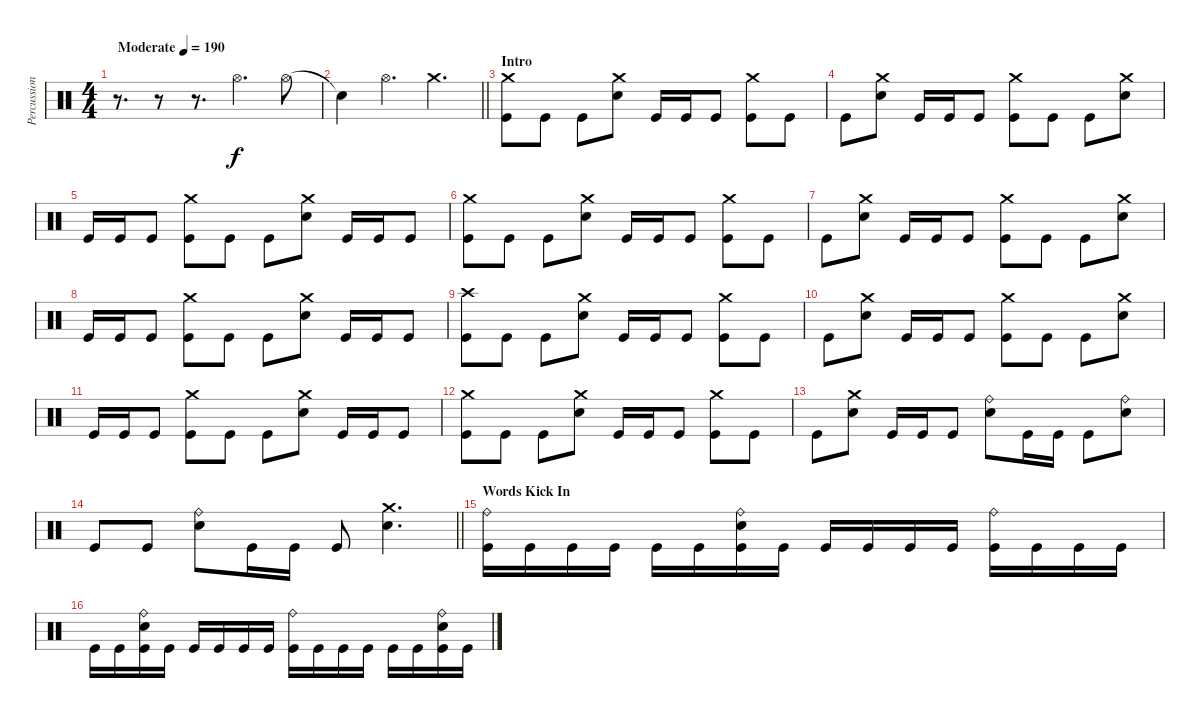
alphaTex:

\track ("Percussion" "Percussion") {instrument percussion}
\staff {score}
\articulation defaults
\ts (4 4)
\tempo (190 "Moderate")
\clef neutral
\ks c
r.8{d dy f} r.8 r.8{d} "Hi-Hat (open)".4{d} "Hi-Hat (open)".8 |
\barLineRight lightlight "Snare (hit)"{t}.4 "Hi-Hat (open)".4{d} "Crash medium (hit)".4{d}
|
\section ("" "Intro ")
("Crash medium (hit)" "Kick (hit)").8 "Kick (hit)".8 "Kick (hit)".8 ("Crash medium (hit)" "Snare (hit) 2").8 "Kick (hit)".16 "Kick (hit)".16 "Kick (hit)".8 ("Crash medium (hit)" "Kick (hit)").8 "Kick (hit)".8 |
"Kick (hit)".8 ("Crash medium (hit)" "Snare (hit) 2").8 "Kick (hit)".16 "Kick (hit)".16 "Kick (hit)".8 ("Crash medium (hit)" "Kick (hit)").8 "Kick (hit)".8 "Kick (hit)".8 ("Crash medium (hit)" "Snare (hit) 2").8 |
"Kick (hit)".16 "Kick (hit)".16 "Kick (hit)".8 ("Crash medium (hit)" "Kick (hit)").8 "Kick (hit)".8 "Kick (hit)".8 ("Crash medium (hit)" "Snare (hit) 2").8 "Kick (hit)".16 "Kick (hit)".16 "Kick (hit)".8 |
("Crash medium (hit)" "Kick (hit)").8 "Kick (hit)".8 "Kick (hit)".8 ("Crash medium (hit)" "Snare (hit) 2").8 "Kick (hit)".16 "Kick (hit)".16 "Kick (hit)".8 ("Crash medium (hit)" "Kick (hit)").8 "Kick (hit)".8 |
"Kick (hit)".8 ("Crash medium (hit)" "Snare (hit) 2").8 "Kick (hit)".16 "Kick (hit)".16 "Kick (hit)".8 ("Crash medium (hit)" "Kick (hit)").8 "Kick (hit)".8 "Kick (hit)".8 ("Crash medium (hit)" "Snare (hit) 2").8 |
"Kick (hit)".16 "Kick (hit)".16 "Kick (hit)".8 ("Crash medium (hit)" "Kick (hit)").8 "Kick (hit)".8 "Kick (hit)".8 ("Crash medium (hit)" "Snare (hit) 2").8 "Kick (hit)".16 "Kick (hit)".16 "Kick (hit)".8 |
("Crash high (hit)" "Kick (hit)").8 "Kick (hit)".8 "Kick (hit)".8 ("Crash medium (hit)" "Snare (hit) 2").8 "Kick (hit)".16 "Kick (hit)".16 "Kick (hit)".8 ("Crash medium (hit)" "Kick (hit)").8 "Kick (hit)".8 |
"Kick (hit)".8 ("Crash medium (hit)" "Snare (hit) 2").8 "Kick (hit)".16 "Kick (hit)".16 "Kick (hit)".8 ("Crash medium (hit)" "Kick (hit)").8 "Kick (hit)".8 "Kick (hit)".8 ("Crash medium (hit)" "Snare (hit) 2").8 |
"Kick (hit)".16 "Kick (hit)".16 "Kick (hit)".8 ("Crash medium (hit)" "Kick (hit)").8 "Kick (hit)".8 "Kick (hit)".8 ("Crash medium (hit)" "Snare (hit) 2").8 "Kick (hit)".16 "Kick (hit)".16 "Kick (hit)".8 |
("Crash medium (hit)" "Kick (hit)").8 "Kick (hit)".8 "Kick (hit)".8 ("Crash medium (hit)" "Snare (hit) 2").8 "Kick (hit)".16 "Kick (hit)".16 "Kick (hit)".8 ("Crash medium (hit)" "Kick (hit)").8 "Kick (hit)".8 |
"Kick (hit)".8 ("Crash medium (hit)" "Snare (hit) 2").8 "Kick (hit)".16 "Kick (hit)".16 "Kick (hit)".8 ("Ride (bell)" "Snare (hit) 2").8 "Kick (hit)".16 "Kick (hit)".16 "Kick (hit)".8 ("Ride (bell)" "Snare (hit) 2").8 |
\barLineRight lightlight "Kick (hit)".8 "Kick (hit)".8
("Ride (bell)" "Snare (hit) 2").8 "Kick (hit)".16 "Kick (hit)".16 "Kick (hit)".8 ("Crash medium (hit)" "Snare (hit) 2").4{d} |
\section ("" "Words Kick In")
("Ride (bell)" "Kick (hit)").16 "Kick (hit)".16 "Kick (hit)".16 "Kick (hit)".16 "Kick (hit)".16 "Kick (hit)".16 ("Ride (bell)" "Snare (hit) 2" "Kick (hit)").16 "Kick (hit)".16 "Kick (hit)".16 "Kick (hit)".16 "Kick (hit)".16 "Kick (hit)".16 ("Ride (bell)" "Kick (hit)").16 "Kick (hit)".16 "Kick (hit)".16 "Kick (hit)".16 |
"Kick (hit)".16 "Kick (hit)".16 ("Ride (bell)" "Snare (hit) 2" "Kick (hit)").16 "Kick (hit)".16 "Kick (hit)".16 "Kick (hit)".16 "Kick (hit)".16 "Kick (hit)".16 ("Ride (bell)" "Kick (hit)").16 "Kick (hit)".16 "Kick (hit)".16 "Kick (hit)".16 "Kick (hit)".16 "Kick (hit)".16 ("Ride (bell)" "Snare (hit) 2" "Kick (hit)").16 "Kick (hit)".16
